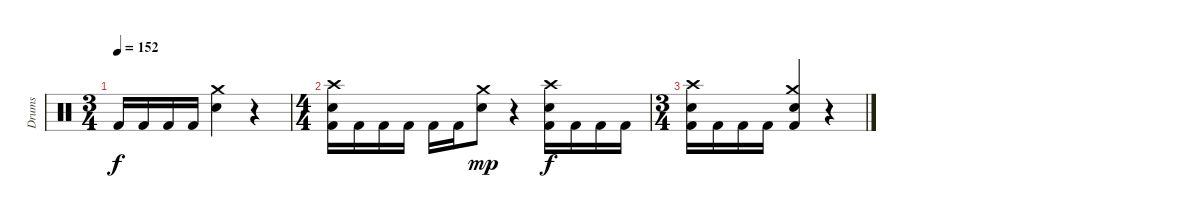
\track ("Drums" "Drums") {instrument percussion}
\staff {score}
\articulation defaults
\ts (3 4)
\tempo 152
\clef neutral
\ks c "Kick (hit) 2".16{dy f} "Kick (hit) 2".16 "Kick (hit) 2".16 "Kick (hit) 2".16
("Crash medium (hit)" "Snare (hit) 2").4 r.4 |
\ts (4 4)
("Crash high (hit)" "Snare (hit) 2" "Kick (hit) 2").16 "Kick (hit) 2".16 "Kick (hit) 2".16 "Kick (hit) 2".16 "Kick (hit) 2".16 "Kick (hit) 2".16 ("Crash medium (hit)" "Snare (hit) 2").8{dy mp} r.4 ("Crash high (hit)" "Snare (hit) 2" "Kick (hit) 2").16{dy f} "Kick (hit) 2".16 "Kick (hit) 2".16 "Kick (hit) 2".16 |
\ts (3 4)
("Crash high (hit)" "Snare (hit) 2" "Kick (hit) 2").16 "Kick (hit) 2".16 "Kick (hit) 2".16 "Kick (hit) 2".16 ("Crash medium (hit)" "Snare (hit) 2" "Kick (hit) 2").4 r.4
